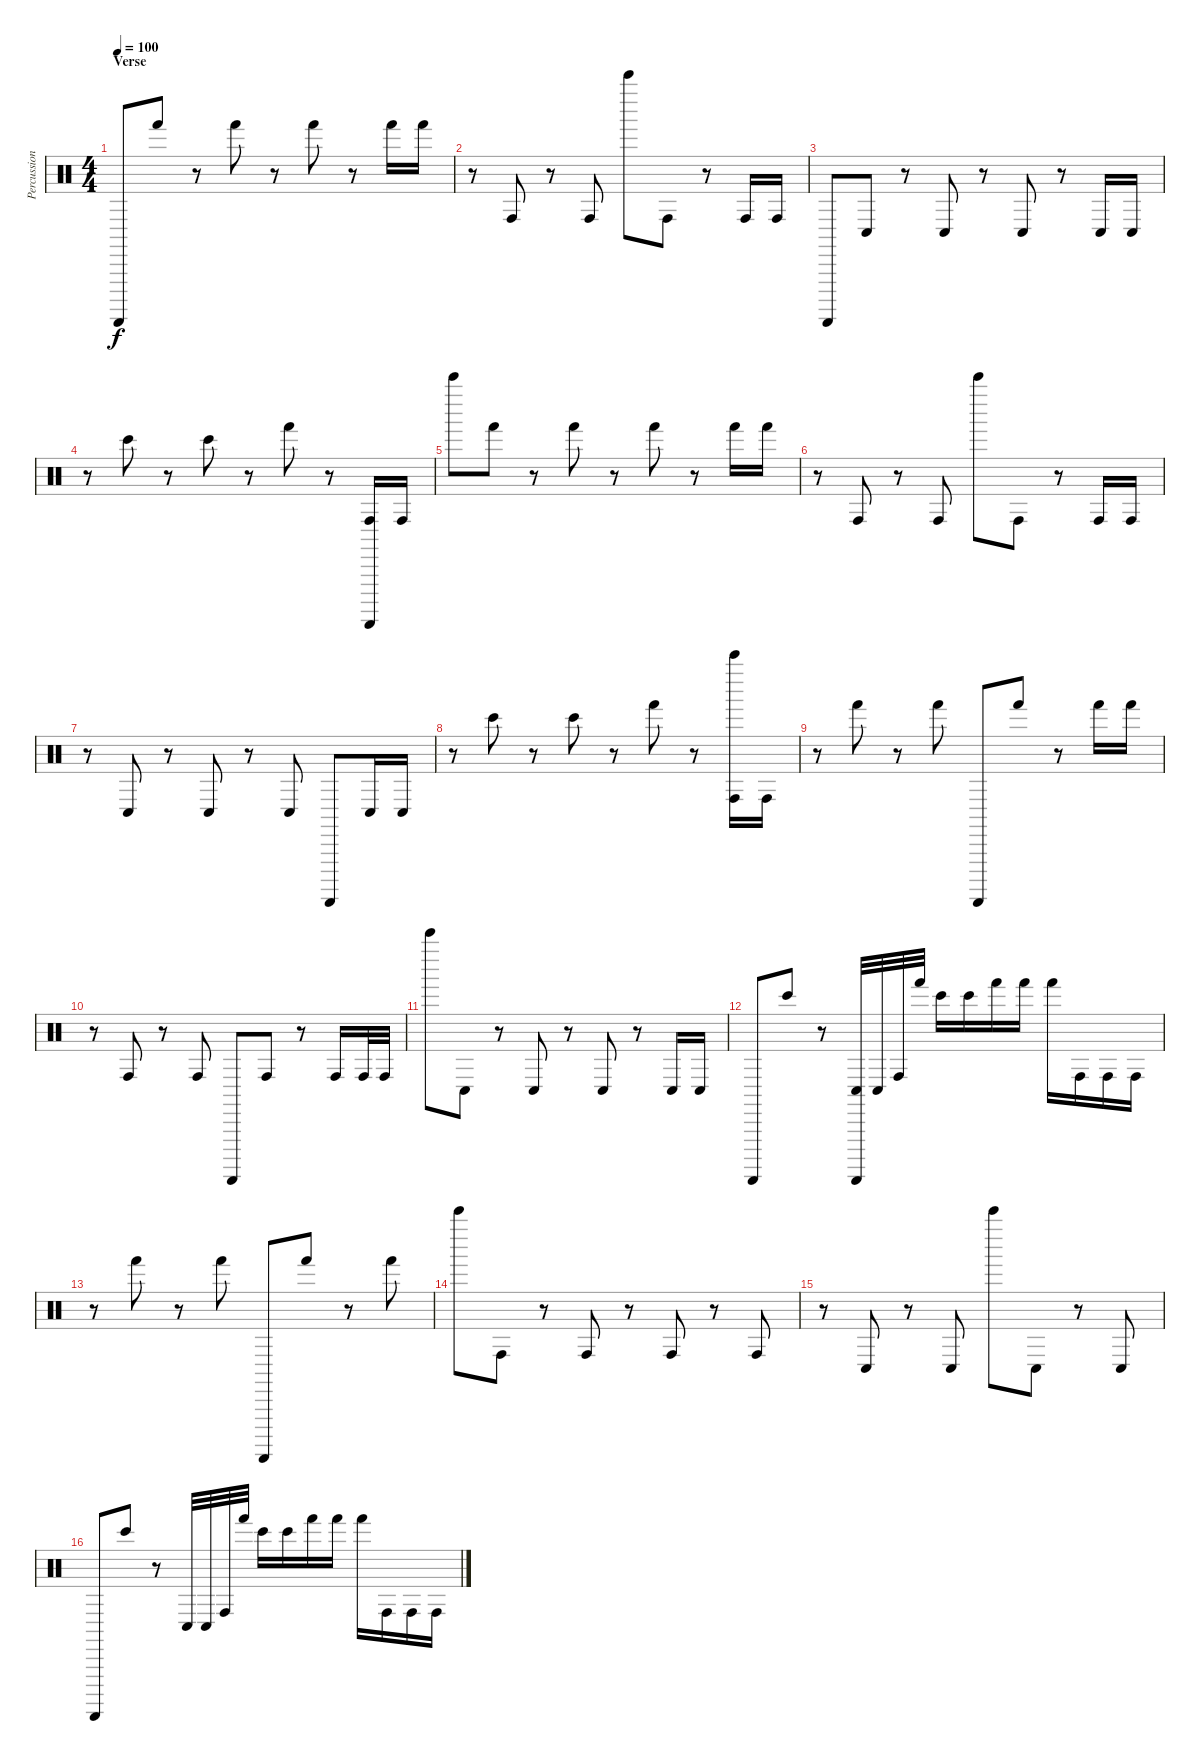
\track ("Percussion" "Percussion") {instrument percussion}
\staff {score}
\articulation defaults
\ts (4 4)
\section ("" "Verse")
\tempo 100
\clef neutral
\ks c "Guiro (scrap-return)".8{dy f} "Hand (hit)".8
r.8 "Hand (hit)".8 r.8 "Hand (hit)".8 r.8 "Hand (hit)".16 "Hand (hit)".16 |
r.8 "Conga high (hit)".8 r.8 "Conga high (hit)".8 "Bell Tree (hit)".8 "Conga high (hit)".8 r.8 "Conga high (hit)".16 "Conga high (hit)".16 |
"Guiro (scrap-return)".8 "Conga low (hit)".8 r.8 "Conga low (hit)".8 r.8 "Conga low (hit)".8 r.8 "Conga low (hit)".16 "Conga low (hit)".16 |
r.8 "Bongo High (hit)".8 r.8 "Bongo High (hit)".8 r.8 "Hand (hit)".8 r.8 ("Guiro (scrap-return)" "Conga high (hit)").16 "Conga high (hit)".16 |
"Bell Tree (hit)".8 "Hand (hit)".8 r.8 "Hand (hit)".8 r.8 "Hand (hit)".8 r.8 "Hand (hit)".16 "Hand (hit)".16 |
r.8 "Conga high (hit)".8 r.8 "Conga high (hit)".8 "Bell Tree (hit)".8 "Conga high (hit)".8 r.8 "Conga high (hit)".16 "Conga high (hit)".16 |
r.8 "Conga low (hit)".8 r.8 "Conga low (hit)".8 r.8 "Conga low (hit)".8 "Guiro (scrap-return)".8 "Conga low (hit)".16 "Conga low (hit)".16 |
r.8 "Bongo High (hit)".8 r.8 "Bongo High (hit)".8 r.8 "Hand (hit)".8 r.8 ("Bell Tree (hit)" "Conga high (hit)").16 "Conga high (hit)".16 |
r.8 "Hand (hit)".8 r.8 "Hand (hit)".8 "Guiro (scrap-return)".8 "Hand (hit)".8 r.8 "Hand (hit)".16 "Hand (hit)".16 |
r.8 "Conga high (hit)".8 r.8 "Conga high (hit)".8 "Guiro (scrap-return)".8 "Conga high (hit)".8 r.8 "Conga high (hit)".16 "Conga high (hit)".32 "Conga high (hit)".32 |
"Bell Tree (hit)".8 "Conga low (hit)".8 r.8 "Conga low (hit)".8 r.8 "Conga low (hit)".8 r.8 "Conga low (hit)".16 "Conga low (hit)".16 |
"Guiro (scrap-return)".8 "Bongo High (hit)".8 r.8 ("Guiro (scrap-return)" "Conga low (hit)").32 "Conga low (hit)".32 "Conga high (hit)".32 "Hand (hit)".32 "Bongo High (hit)".16 "Bongo High (hit)".16 "Hand (hit)".16 "Hand (hit)".16 "Hand (hit)".16 "Conga high (hit)".16 "Conga high (hit)".16 "Conga high (hit)".16 |
r.8 "Hand (hit)".8 r.8 "Hand (hit)".8 "Guiro (scrap-return)".8 "Hand (hit)".8 r.8 "Hand (hit)".8 |
"Bell Tree (hit)".8 "Conga high (hit)".8 r.8 "Conga high (hit)".8 r.8 "Conga high (hit)".8 r.8 "Conga high (hit)".8 |
r.8 "Conga low (hit)".8 r.8 "Conga low (hit)".8 "Bell Tree (hit)".8 "Conga low (hit)".8 r.8 "Conga low (hit)".8 |
"Guiro (scrap-return)".8 "Bongo High (hit)".8 r.8 "Conga low (hit)".32 "Conga low (hit)".32 "Conga high (hit)".32 "Hand (hit)".32 "Bongo High (hit)".16 "Bongo High (hit)".16 "Hand (hit)".16 "Hand (hit)".16 "Hand (hit)".16 "Conga high (hit)".16 "Conga high (hit)".16 "Conga high (hit)".16
